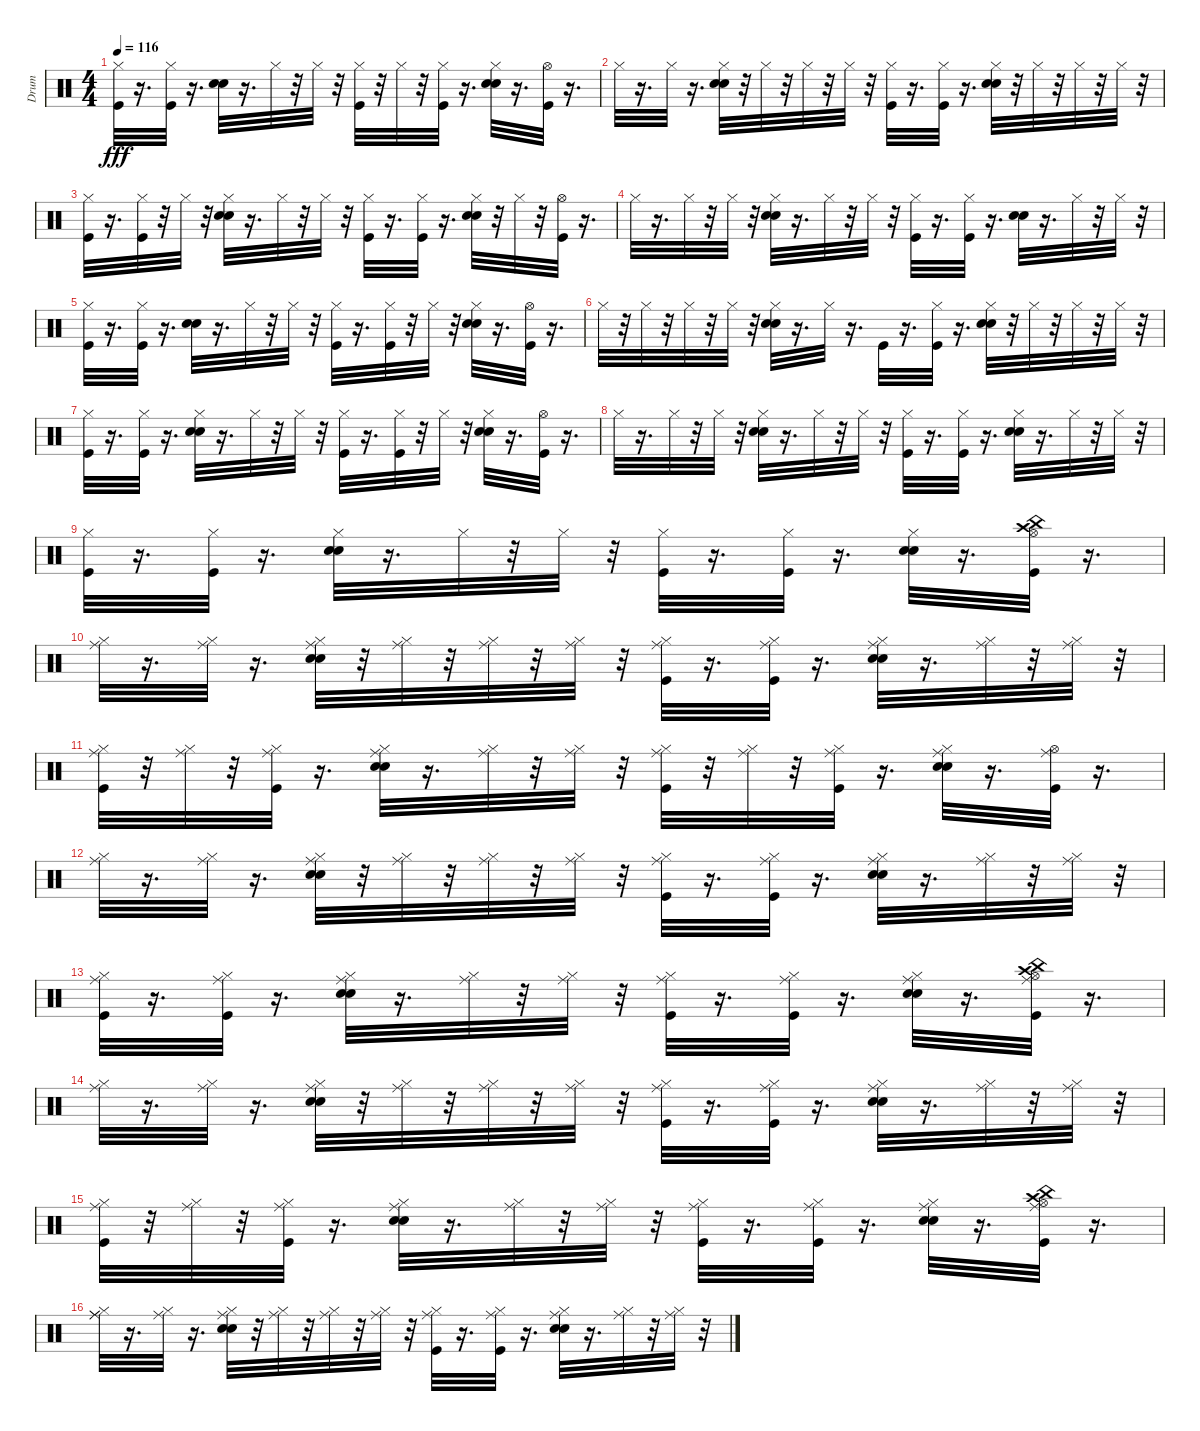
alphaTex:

\track ("Drum" "Drum") {instrument percussion}
\staff {score}
\articulation defaults
\ts (4 4)
\tempo 116
\clef neutral
\ks c
("Hi-Hat (closed)" "Kick (hit)").32{dy fff} r.16{d} ("Hi-Hat (closed)" "Kick (hit)").32 r.16{d} ("Snare (hit) 2" "Electric Snare (hit)").32 r.16{d} "Hi-Hat (closed)".32 r.32 "Hi-Hat (closed)".32 r.32 ("Hi-Hat (closed)" "Kick (hit)").32 r.32 "Hi-Hat (closed)".32 r.32 ("Hi-Hat (closed)" "Kick (hit)").32 r.16{d} ("Hi-Hat (closed)" "Snare (hit) 2" "Electric Snare (hit)").32 r.16{d} ("Hi-Hat (open)" "Kick (hit)").32 r.16{d} |
"Hi-Hat (closed)".32 r.16{d} "Hi-Hat (closed)".32 r.16{d} ("Snare (hit) 2" "Electric Snare (hit)" "Hi-Hat (closed)").32 r.32 "Hi-Hat (closed)".32 r.32 "Hi-Hat (closed)".32 r.32 "Hi-Hat (closed)".32 r.32 ("Hi-Hat (closed)" "Kick (hit)").32 r.16{d} ("Hi-Hat (closed)" "Kick (hit)").32 r.16{d} ("Hi-Hat (closed)" "Snare (hit) 2" "Electric Snare (hit)").32 r.32 "Hi-Hat (closed)".32 r.32 "Hi-Hat (closed)".32 r.32 "Hi-Hat (closed)".32 r.32 |
("Hi-Hat (closed)" "Kick (hit)").32 r.16{d} ("Hi-Hat (closed)" "Kick (hit)").32 r.32 "Hi-Hat (closed)".32 r.32 ("Snare (hit) 2" "Electric Snare (hit)" "Hi-Hat (closed)").32 r.16{d} "Hi-Hat (closed)".32 r.32 "Hi-Hat (closed)".32 r.32 ("Kick (hit)" "Hi-Hat (closed)").32 r.16{d} ("Hi-Hat (closed)" "Kick (hit)").32 r.16{d} ("Hi-Hat (closed)" "Snare (hit) 2" "Electric Snare (hit)").32 r.32 "Hi-Hat (closed)".32 r.32 ("Hi-Hat (open)" "Kick (hit)").32 r.16{d} |
"Hi-Hat (closed)".32 r.16{d} "Hi-Hat (closed)".32 r.32 "Hi-Hat (closed)".32 r.32 ("Hi-Hat (closed)" "Snare (hit) 2" "Electric Snare (hit)").32 r.16{d} "Hi-Hat (closed)".32 r.32 "Hi-Hat (closed)".32 r.32 ("Hi-Hat (closed)" "Kick (hit)").32 r.16{d} ("Hi-Hat (closed)" "Kick (hit)").32 r.16{d} ("Snare (hit) 2" "Electric Snare (hit)").32 r.16{d} "Hi-Hat (closed)".32 r.32 "Hi-Hat (closed)".32 r.32 |
("Hi-Hat (closed)" "Kick (hit)").32 r.16{d} ("Hi-Hat (closed)" "Kick (hit)").32 r.16{d} ("Snare (hit) 2" "Electric Snare (hit)").32 r.16{d} "Hi-Hat (closed)".32 r.32 "Hi-Hat (closed)".32 r.32 ("Hi-Hat (closed)" "Kick (hit)").32 r.16{d} ("Hi-Hat (closed)" "Kick (hit)").32 r.32 "Hi-Hat (closed)".32 r.32 ("Snare (hit) 2" "Electric Snare (hit)" "Hi-Hat (closed)").32 r.16{d} ("Hi-Hat (open)" "Kick (hit)").32 r.16{d} |
"Hi-Hat (closed)".32 r.32 "Hi-Hat (closed)".32 r.32 "Hi-Hat (closed)".32 r.32 "Hi-Hat (closed)".32 r.32 ("Snare (hit) 2" "Electric Snare (hit)" "Hi-Hat (closed)").32 r.16{d} "Hi-Hat (closed)".32 r.16{d} "Kick (hit)".32 r.16{d} ("Hi-Hat (closed)" "Kick (hit)").32 r.16{d} ("Hi-Hat (closed)" "Snare (hit) 2" "Electric Snare (hit)").32 r.32 "Hi-Hat (closed)".32 r.32 "Hi-Hat (closed)".32 r.32 "Hi-Hat (closed)".32 r.32 |
("Hi-Hat (closed)" "Kick (hit)").32 r.16{d} ("Hi-Hat (closed)" "Kick (hit)").32 r.16{d} ("Snare (hit) 2" "Electric Snare (hit)" "Hi-Hat (closed)").32 r.16{d} "Hi-Hat (closed)".32 r.32 "Hi-Hat (closed)".32 r.32 ("Hi-Hat (closed)" "Kick (hit)").32 r.16{d} ("Hi-Hat (closed)" "Kick (hit)").32 r.32 "Hi-Hat (closed)".32 r.32 ("Snare (hit) 2" "Electric Snare (hit)" "Hi-Hat (closed)").32 r.16{d} ("Hi-Hat (open)" "Kick (hit)").32 r.16{d} |
"Hi-Hat (closed)".32 r.16{d} "Hi-Hat (closed)".32 r.32 "Hi-Hat (closed)".32 r.32 ("Snare (hit) 2" "Electric Snare (hit)" "Hi-Hat (closed)").32 r.16{d} "Hi-Hat (closed)".32 r.32 "Hi-Hat (closed)".32 r.32 ("Hi-Hat (closed)" "Kick (hit)").32 r.16{d} ("Hi-Hat (closed)" "Kick (hit)").32 r.16{d} ("Snare (hit) 2" "Electric Snare (hit)" "Hi-Hat (closed)").32 r.16{d} "Hi-Hat (closed)".32 r.32 "Hi-Hat (closed)".32 r.32 |
("Hi-Hat (closed)" "Kick (hit)").32 r.16{d} ("Hi-Hat (closed)" "Kick (hit)").32 r.16{d} ("Snare (hit) 2" "Electric Snare (hit)" "Hi-Hat (closed)").32 r.16{d} "Hi-Hat (closed)".32 r.32 "Hi-Hat (closed)".32 r.32 ("Hi-Hat (closed)" "Kick (hit)").32 r.16{d} ("Hi-Hat (closed)" "Kick (hit)").32 r.16{d} ("Hi-Hat (closed)" "Snare (hit) 2" "Electric Snare (hit)").32 r.16{d} ("Crash high (hit)" "China (hit)" "Hi-Hat (open)" "Kick (hit)").32 r.16{d} |
("Ride (middle)" "Hi-Hat (closed)").32 r.16{d} ("Ride (middle)" "Hi-Hat (closed)").32 r.16{d} ("Snare (hit) 2" "Electric Snare (hit)" "Ride (middle)" "Hi-Hat (closed)").32 r.32 ("Ride (middle)" "Hi-Hat (closed)").32 r.32 ("Ride (middle)" "Hi-Hat (closed)").32 r.32 ("Ride (middle)" "Hi-Hat (closed)").32 r.32 ("Kick (hit)" "Ride (middle)" "Hi-Hat (closed)").32 r.16{d} ("Ride (middle)" "Hi-Hat (closed)" "Kick (hit)").32 r.16{d} ("Snare (hit) 2" "Electric Snare (hit)" "Ride (middle)" "Hi-Hat (closed)").32 r.16{d} ("Ride (middle)" "Hi-Hat (closed)").32 r.32 ("Ride (middle)" "Hi-Hat (closed)").32 r.32 |
("Ride (middle)" "Hi-Hat (closed)" "Kick (hit)").32 r.32 ("Ride (middle)" "Hi-Hat (closed)").32 r.32 ("Ride (middle)" "Hi-Hat (closed)" "Kick (hit)").32 r.16{d} ("Ride (middle)" "Hi-Hat (closed)" "Snare (hit) 2" "Electric Snare (hit)").32 r.16{d} ("Ride (middle)" "Hi-Hat (closed)").32 r.32 ("Ride (middle)" "Hi-Hat (closed)").32 r.32 ("Ride (middle)" "Hi-Hat (closed)" "Kick (hit)").32 r.32 ("Ride (middle)" "Hi-Hat (closed)").32 r.32 ("Ride (middle)" "Hi-Hat (closed)" "Kick (hit)").32 r.16{d} ("Snare (hit) 2" "Electric Snare (hit)" "Ride (middle)" "Hi-Hat (closed)").32 r.16{d} ("Ride (middle)" "Hi-Hat (open)" "Kick (hit)").32 r.16{d} |
("Ride (middle)" "Hi-Hat (closed)").32 r.16{d} ("Ride (middle)" "Hi-Hat (closed)").32 r.16{d} ("Snare (hit) 2" "Electric Snare (hit)" "Ride (middle)" "Hi-Hat (closed)").32 r.32 ("Ride (middle)" "Hi-Hat (closed)").32 r.32 ("Ride (middle)" "Hi-Hat (closed)").32 r.32 ("Ride (middle)" "Hi-Hat (closed)").32 r.32 ("Ride (middle)" "Hi-Hat (closed)" "Kick (hit)").32 r.16{d} ("Ride (middle)" "Hi-Hat (closed)" "Kick (hit)").32 r.16{d} ("Snare (hit) 2" "Electric Snare (hit)" "Ride (middle)" "Hi-Hat (closed)").32 r.16{d} ("Ride (middle)" "Hi-Hat (closed)").32 r.32 ("Ride (middle)" "Hi-Hat (closed)").32 r.32 |
("Ride (middle)" "Hi-Hat (closed)" "Kick (hit)").32 r.16{d} ("Ride (middle)" "Hi-Hat (closed)" "Kick (hit)").32 r.16{d} ("Ride (middle)" "Hi-Hat (closed)" "Snare (hit) 2" "Electric Snare (hit)").32 r.16{d} ("Ride (middle)" "Hi-Hat (closed)").32 r.32 ("Ride (middle)" "Hi-Hat (closed)").32 r.32 ("Ride (middle)" "Hi-Hat (closed)" "Kick (hit)").32 r.16{d} ("Ride (middle)" "Hi-Hat (closed)" "Kick (hit)").32 r.16{d} ("Snare (hit) 2" "Electric Snare (hit)" "Ride (middle)" "Hi-Hat (closed)").32 r.16{d} ("Crash high (hit)" "China (hit)" "Ride (middle)" "Hi-Hat (open)" "Kick (hit)").32 r.16{d} |
("Ride (middle)" "Hi-Hat (closed)").32 r.16{d} ("Ride (middle)" "Hi-Hat (closed)").32 r.16{d} ("Snare (hit) 2" "Electric Snare (hit)" "Ride (middle)" "Hi-Hat (closed)").32 r.32 ("Ride (middle)" "Hi-Hat (closed)").32 r.32 ("Ride (middle)" "Hi-Hat (closed)").32 r.32 ("Ride (middle)" "Hi-Hat (closed)").32 r.32 ("Ride (middle)" "Hi-Hat (closed)" "Kick (hit)").32 r.16{d} ("Ride (middle)" "Hi-Hat (closed)" "Kick (hit)").32 r.16{d} ("Ride (middle)" "Hi-Hat (closed)" "Snare (hit) 2" "Electric Snare (hit)").32 r.16{d} ("Ride (middle)" "Hi-Hat (closed)").32 r.32 ("Ride (middle)" "Hi-Hat (closed)").32 r.32 |
("Ride (middle)" "Hi-Hat (closed)" "Kick (hit)").32 r.32 ("Ride (middle)" "Hi-Hat (closed)").32 r.32 ("Ride (middle)" "Hi-Hat (closed)" "Kick (hit)").32 r.16{d} ("Snare (hit) 2" "Electric Snare (hit)" "Ride (middle)" "Hi-Hat (closed)").32 r.16{d} ("Ride (middle)" "Hi-Hat (closed)").32 r.32 ("Ride (middle)" "Hi-Hat (closed)").32 r.32 ("Ride (middle)" "Hi-Hat (closed)" "Kick (hit)").32 r.16{d} ("Ride (middle)" "Hi-Hat (closed)" "Kick (hit)").32 r.16{d} ("Snare (hit) 2" "Electric Snare (hit)" "Ride (middle)" "Hi-Hat (closed)").32 r.16{d} ("Crash high (hit)" "China (hit)" "Ride (middle)" "Hi-Hat (open)" "Kick (hit)").32 r.16{d} |
("Ride (middle)" "Hi-Hat (closed)" "Ride (middle)").32 r.16{d} ("Ride (middle)" "Hi-Hat (closed)").32 r.16{d} ("Snare (hit) 2" "Electric Snare (hit)" "Ride (middle)" "Hi-Hat (closed)").32 r.32 ("Ride (middle)" "Hi-Hat (closed)").32 r.32 ("Ride (middle)" "Hi-Hat (closed)").32 r.32 ("Ride (middle)" "Hi-Hat (closed)").32 r.32 ("Ride (middle)" "Hi-Hat (closed)" "Kick (hit)").32 r.16{d} ("Ride (middle)" "Hi-Hat (closed)" "Kick (hit)").32 r.16{d} ("Snare (hit) 2" "Electric Snare (hit)" "Ride (middle)" "Hi-Hat (closed)").32 r.16{d} ("Ride (middle)" "Hi-Hat (closed)").32 r.32 ("Ride (middle)" "Hi-Hat (closed)").32 r.32
